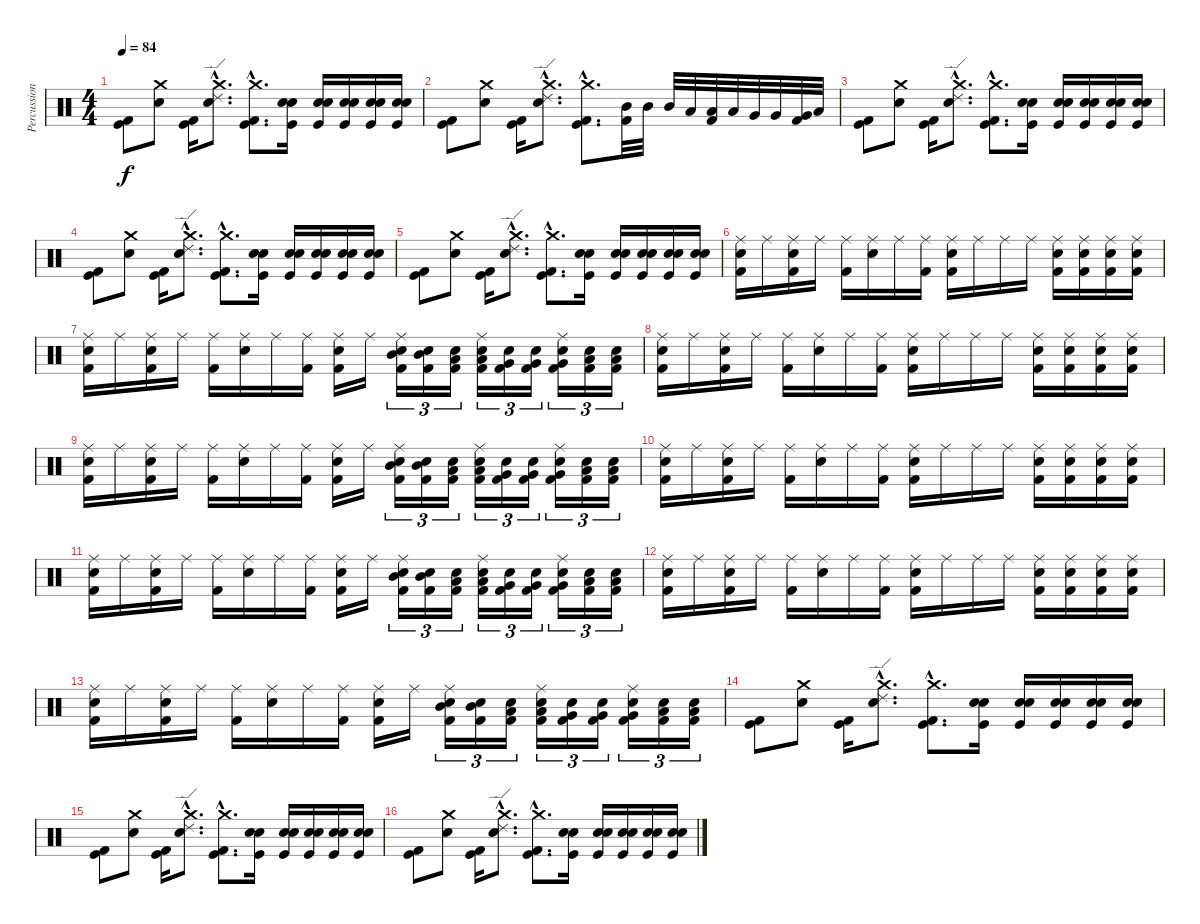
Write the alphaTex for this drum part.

\track ("Percussions" "Percussion") {instrument percussion}
\staff {score}
\articulation defaults
\ts (4 4)
\tempo 84
\clef neutral
\ks c
("Kick (hit)" "Kick (hit) 2").8{dy f} ("Crash medium (hit)" "Snare (hit) 2").8 ("Kick (hit)" "Kick (hit) 2").16 ("Crash medium (hit)"{hac} "Snare (hit) 2"{hac} "Ride (edge) 2"{hac}).8{d} ("Crash medium (hit)"{hac} "Kick (hit)"{hac} "Kick (hit) 2"{hac}).8{d} ("Kick (hit)" "Electric Snare (hit)" "Electric Snare (hit)").16 ("Kick (hit)" "Electric Snare (hit)" "Electric Snare (hit)").16 ("Kick (hit)" "Electric Snare (hit)" "Electric Snare (hit)").16 ("Kick (hit)" "Electric Snare (hit)" "Electric Snare (hit)").16 ("Kick (hit)" "Electric Snare (hit)" "Electric Snare (hit)").16 |
("Kick (hit)" "Kick (hit) 2").8 ("Crash medium (hit)" "Snare (hit) 2").8 ("Kick (hit)" "Kick (hit) 2").16 ("Crash medium (hit)"{hac} "Snare (hit) 2"{hac} "Ride (edge) 2"{hac}).8{d} ("Crash medium (hit)"{hac} "Kick (hit)"{hac} "Kick (hit) 2"{hac}).8{d} ("Mid Tom (hit)" "Kick (hit) 2").32 "Mid Tom (hit)".32 "Mid Tom (hit)".32 "Low Tom (hit)".32 ("Low Tom (hit)" "Kick (hit) 2").32 "Low Tom (hit)".32 "Very Low Tom (hit)".32 "Very Low Tom (hit)".32 ("Very Low Tom (hit)" "Kick (hit) 2").32 "Low Floor Tom (hit)".32 |
("Kick (hit)" "Kick (hit) 2").8 ("Crash medium (hit)" "Snare (hit) 2").8 ("Kick (hit)" "Kick (hit) 2").16 ("Crash medium (hit)"{hac} "Snare (hit) 2"{hac} "Ride (edge) 2"{hac}).8{d} ("Crash medium (hit)"{hac} "Kick (hit)"{hac} "Kick (hit) 2"{hac}).8{d} ("Kick (hit)" "Electric Snare (hit)" "Electric Snare (hit)").16 ("Kick (hit)" "Electric Snare (hit)" "Electric Snare (hit)").16 ("Kick (hit)" "Electric Snare (hit)" "Electric Snare (hit)").16 ("Kick (hit)" "Electric Snare (hit)" "Electric Snare (hit)").16 ("Kick (hit)" "Electric Snare (hit)" "Electric Snare (hit)").16 |
("Kick (hit)" "Kick (hit) 2").8 ("Crash medium (hit)" "Snare (hit) 2").8 ("Kick (hit)" "Kick (hit) 2").16 ("Crash medium (hit)"{hac} "Snare (hit) 2"{hac} "Ride (edge) 2"{hac}).8{d} ("Crash medium (hit)"{hac} "Kick (hit)"{hac} "Kick (hit) 2"{hac}).8{d} ("Kick (hit)" "Electric Snare (hit)" "Electric Snare (hit)").16 ("Kick (hit)" "Electric Snare (hit)" "Electric Snare (hit)").16 ("Kick (hit)" "Electric Snare (hit)" "Electric Snare (hit)").16 ("Kick (hit)" "Electric Snare (hit)" "Electric Snare (hit)").16 ("Kick (hit)" "Electric Snare (hit)" "Electric Snare (hit)").16 |
("Kick (hit)" "Kick (hit) 2").8 ("Crash medium (hit)" "Snare (hit) 2").8 ("Kick (hit)" "Kick (hit) 2").16 ("Crash medium (hit)"{hac} "Snare (hit) 2"{hac} "Ride (edge) 2"{hac}).8{d} ("Crash medium (hit)"{hac} "Kick (hit)"{hac} "Kick (hit) 2"{hac}).8{d} ("Kick (hit)" "Electric Snare (hit)" "Electric Snare (hit)").16 ("Kick (hit)" "Electric Snare (hit)" "Electric Snare (hit)").16 ("Kick (hit)" "Electric Snare (hit)" "Electric Snare (hit)").16 ("Kick (hit)" "Electric Snare (hit)" "Electric Snare (hit)").16 ("Kick (hit)" "Electric Snare (hit)" "Electric Snare (hit)").16 |
("Ride (middle)" "Snare (hit) 2" "Kick (hit) 2").16 "Ride (middle)".16 ("Ride (middle)" "Snare (hit) 2" "Kick (hit) 2").16 "Ride (middle)".16 ("Ride (middle)" "Kick (hit) 2").16 ("Ride (middle)" "Snare (hit) 2").16 "Ride (middle)".16 ("Ride (middle)" "Kick (hit) 2").16 ("Ride (middle)" "Snare (hit) 2" "Kick (hit) 2").16 "Ride (middle)".16 "Ride (middle)".16 "Ride (middle)".16 ("Ride (middle)" "Snare (hit) 2" "Kick (hit) 2").16 ("Ride (middle)" "Kick (hit) 2" "Snare (hit) 2").16 ("Ride (middle)" "Snare (hit) 2" "Kick (hit) 2").16 ("Ride (middle)" "Snare (hit) 2" "Kick (hit) 2").16 |
("Ride (middle)" "Snare (hit) 2" "Kick (hit) 2").16 "Ride (middle)".16 ("Ride (middle)" "Snare (hit) 2" "Kick (hit) 2").16 "Ride (middle)".16 ("Ride (middle)" "Kick (hit) 2").16 ("Ride (middle)" "Snare (hit) 2").16 "Ride (middle)".16 ("Ride (middle)" "Kick (hit) 2").16 ("Ride (middle)" "Snare (hit) 2" "Kick (hit) 2").16 "Ride (middle)".16 ("Ride (middle)" "Snare (hit) 2" "Mid Tom (hit)" "Kick (hit) 2").16{tu (3 2)} ("Snare (hit) 2" "Mid Tom (hit)" "Kick (hit) 2").16{tu (3 2)} ("Snare (hit) 2" "Low Tom (hit)" "Kick (hit) 2").16{tu (3 2)} ("Ride (middle)" "Snare (hit) 2" "Low Tom (hit)" "Kick (hit) 2").16{tu (3 2)} ("Snare (hit) 2" "Very Low Tom (hit)" "Kick (hit) 2").16{tu (3 2)} ("Electric Snare (hit)" "Very Low Tom (hit)" "Kick (hit) 2").16{tu (3 2)} ("Ride (middle)" "Electric Snare (hit)" "Very Low Tom (hit)" "Kick (hit) 2").16{tu (3 2)} ("Electric Snare (hit)" "Low Floor Tom (hit)" "Kick (hit) 2").16{tu (3 2)} ("Electric Snare (hit)" "Low Floor Tom (hit)" "Kick (hit) 2").16{tu (3 2)} |
("Ride (middle)" "Snare (hit) 2" "Kick (hit) 2").16 "Ride (middle)".16 ("Ride (middle)" "Snare (hit) 2" "Kick (hit) 2").16 "Ride (middle)".16 ("Ride (middle)" "Kick (hit) 2").16 ("Ride (middle)" "Snare (hit) 2").16 "Ride (middle)".16 ("Ride (middle)" "Kick (hit) 2").16 ("Ride (middle)" "Snare (hit) 2" "Kick (hit) 2").16 "Ride (middle)".16 "Ride (middle)".16 "Ride (middle)".16 ("Ride (middle)" "Snare (hit) 2" "Kick (hit) 2").16 ("Ride (middle)" "Kick (hit) 2" "Snare (hit) 2").16 ("Ride (middle)" "Snare (hit) 2" "Kick (hit) 2").16 ("Ride (middle)" "Snare (hit) 2" "Kick (hit) 2").16 |
("Ride (middle)" "Snare (hit) 2" "Kick (hit) 2").16 "Ride (middle)".16 ("Ride (middle)" "Snare (hit) 2" "Kick (hit) 2").16 "Ride (middle)".16 ("Ride (middle)" "Kick (hit) 2").16 ("Ride (middle)" "Snare (hit) 2").16 "Ride (middle)".16 ("Ride (middle)" "Kick (hit) 2").16 ("Ride (middle)" "Snare (hit) 2" "Kick (hit) 2").16 "Ride (middle)".16 ("Ride (middle)" "Snare (hit) 2" "Mid Tom (hit)" "Kick (hit) 2").16{tu (3 2)} ("Snare (hit) 2" "Mid Tom (hit)" "Kick (hit) 2").16{tu (3 2)} ("Snare (hit) 2" "Low Tom (hit)" "Kick (hit) 2").16{tu (3 2)} ("Ride (middle)" "Snare (hit) 2" "Low Tom (hit)" "Kick (hit) 2").16{tu (3 2)} ("Snare (hit) 2" "Very Low Tom (hit)" "Kick (hit) 2").16{tu (3 2)} ("Electric Snare (hit)" "Very Low Tom (hit)" "Kick (hit) 2").16{tu (3 2)} ("Ride (middle)" "Electric Snare (hit)" "Very Low Tom (hit)" "Kick (hit) 2").16{tu (3 2)} ("Electric Snare (hit)" "Low Floor Tom (hit)" "Kick (hit) 2").16{tu (3 2)} ("Electric Snare (hit)" "Low Floor Tom (hit)" "Kick (hit) 2").16{tu (3 2)} |
("Ride (middle)" "Snare (hit) 2" "Kick (hit) 2").16 "Ride (middle)".16 ("Ride (middle)" "Snare (hit) 2" "Kick (hit) 2").16 "Ride (middle)".16 ("Ride (middle)" "Kick (hit) 2").16 ("Ride (middle)" "Snare (hit) 2").16 "Ride (middle)".16 ("Ride (middle)" "Kick (hit) 2").16 ("Ride (middle)" "Snare (hit) 2" "Kick (hit) 2").16 "Ride (middle)".16 "Ride (middle)".16 "Ride (middle)".16 ("Ride (middle)" "Snare (hit) 2" "Kick (hit) 2").16 ("Ride (middle)" "Kick (hit) 2" "Snare (hit) 2").16 ("Ride (middle)" "Snare (hit) 2" "Kick (hit) 2").16 ("Ride (middle)" "Snare (hit) 2" "Kick (hit) 2").16 |
("Ride (middle)" "Snare (hit) 2" "Kick (hit) 2").16 "Ride (middle)".16 ("Ride (middle)" "Snare (hit) 2" "Kick (hit) 2").16 "Ride (middle)".16 ("Ride (middle)" "Kick (hit) 2").16 ("Ride (middle)" "Snare (hit) 2").16 "Ride (middle)".16 ("Ride (middle)" "Kick (hit) 2").16 ("Ride (middle)" "Snare (hit) 2" "Kick (hit) 2").16 "Ride (middle)".16 ("Ride (middle)" "Snare (hit) 2" "Mid Tom (hit)" "Kick (hit) 2").16{tu (3 2)} ("Snare (hit) 2" "Mid Tom (hit)" "Kick (hit) 2").16{tu (3 2)} ("Snare (hit) 2" "Low Tom (hit)" "Kick (hit) 2").16{tu (3 2)} ("Ride (middle)" "Snare (hit) 2" "Low Tom (hit)" "Kick (hit) 2").16{tu (3 2)} ("Snare (hit) 2" "Very Low Tom (hit)" "Kick (hit) 2").16{tu (3 2)} ("Electric Snare (hit)" "Very Low Tom (hit)" "Kick (hit) 2").16{tu (3 2)} ("Ride (middle)" "Electric Snare (hit)" "Very Low Tom (hit)" "Kick (hit) 2").16{tu (3 2)} ("Electric Snare (hit)" "Low Floor Tom (hit)" "Kick (hit) 2").16{tu (3 2)} ("Electric Snare (hit)" "Low Floor Tom (hit)" "Kick (hit) 2").16{tu (3 2)} |
("Ride (middle)" "Snare (hit) 2" "Kick (hit) 2").16 "Ride (middle)".16 ("Ride (middle)" "Snare (hit) 2" "Kick (hit) 2").16 "Ride (middle)".16 ("Ride (middle)" "Kick (hit) 2").16 ("Ride (middle)" "Snare (hit) 2").16 "Ride (middle)".16 ("Ride (middle)" "Kick (hit) 2").16 ("Ride (middle)" "Snare (hit) 2" "Kick (hit) 2").16 "Ride (middle)".16 "Ride (middle)".16 "Ride (middle)".16 ("Ride (middle)" "Snare (hit) 2" "Kick (hit) 2").16 ("Ride (middle)" "Kick (hit) 2" "Snare (hit) 2").16 ("Ride (middle)" "Snare (hit) 2" "Kick (hit) 2").16 ("Ride (middle)" "Snare (hit) 2" "Kick (hit) 2").16 |
("Ride (middle)" "Snare (hit) 2" "Kick (hit) 2").16 "Ride (middle)".16 ("Ride (middle)" "Snare (hit) 2" "Kick (hit) 2").16 "Ride (middle)".16 ("Ride (middle)" "Kick (hit) 2").16 ("Ride (middle)" "Snare (hit) 2").16 "Ride (middle)".16 ("Ride (middle)" "Kick (hit) 2").16 ("Ride (middle)" "Snare (hit) 2" "Kick (hit) 2").16 "Ride (middle)".16 ("Ride (middle)" "Snare (hit) 2" "Mid Tom (hit)" "Kick (hit) 2").16{tu (3 2)} ("Snare (hit) 2" "Mid Tom (hit)" "Kick (hit) 2").16{tu (3 2)} ("Snare (hit) 2" "Low Tom (hit)" "Kick (hit) 2").16{tu (3 2)} ("Ride (middle)" "Snare (hit) 2" "Low Tom (hit)" "Kick (hit) 2").16{tu (3 2)} ("Snare (hit) 2" "Very Low Tom (hit)" "Kick (hit) 2").16{tu (3 2)} ("Electric Snare (hit)" "Very Low Tom (hit)" "Kick (hit) 2").16{tu (3 2)} ("Ride (middle)" "Electric Snare (hit)" "Very Low Tom (hit)" "Kick (hit) 2").16{tu (3 2)} ("Electric Snare (hit)" "Low Floor Tom (hit)" "Kick (hit) 2").16{tu (3 2)} ("Electric Snare (hit)" "Low Floor Tom (hit)" "Kick (hit) 2").16{tu (3 2)} |
("Kick (hit)" "Kick (hit) 2").8 ("Crash medium (hit)" "Snare (hit) 2").8 ("Kick (hit)" "Kick (hit) 2").16 ("Crash medium (hit)"{hac} "Snare (hit) 2"{hac} "Ride (edge) 2"{hac}).8{d} ("Crash medium (hit)"{hac} "Kick (hit)"{hac} "Kick (hit) 2"{hac}).8{d} ("Kick (hit)" "Electric Snare (hit)" "Electric Snare (hit)").16 ("Kick (hit)" "Electric Snare (hit)" "Electric Snare (hit)").16 ("Kick (hit)" "Electric Snare (hit)" "Electric Snare (hit)").16 ("Kick (hit)" "Electric Snare (hit)" "Electric Snare (hit)").16 ("Kick (hit)" "Electric Snare (hit)" "Electric Snare (hit)").16 |
("Kick (hit)" "Kick (hit) 2").8 ("Crash medium (hit)" "Snare (hit) 2").8 ("Kick (hit)" "Kick (hit) 2").16 ("Crash medium (hit)"{hac} "Snare (hit) 2"{hac} "Ride (edge) 2"{hac}).8{d} ("Crash medium (hit)"{hac} "Kick (hit)"{hac} "Kick (hit) 2"{hac}).8{d} ("Kick (hit)" "Electric Snare (hit)" "Electric Snare (hit)").16 ("Kick (hit)" "Electric Snare (hit)" "Electric Snare (hit)").16 ("Kick (hit)" "Electric Snare (hit)" "Electric Snare (hit)").16 ("Kick (hit)" "Electric Snare (hit)" "Electric Snare (hit)").16 ("Kick (hit)" "Electric Snare (hit)" "Electric Snare (hit)").16 |
("Kick (hit)" "Kick (hit) 2").8 ("Crash medium (hit)" "Snare (hit) 2").8 ("Kick (hit)" "Kick (hit) 2").16 ("Crash medium (hit)"{hac} "Snare (hit) 2"{hac} "Ride (edge) 2"{hac}).8{d} ("Crash medium (hit)"{hac} "Kick (hit)"{hac} "Kick (hit) 2"{hac}).8{d} ("Kick (hit)" "Electric Snare (hit)" "Electric Snare (hit)").16 ("Kick (hit)" "Electric Snare (hit)" "Electric Snare (hit)").16 ("Kick (hit)" "Electric Snare (hit)" "Electric Snare (hit)").16 ("Kick (hit)" "Electric Snare (hit)" "Electric Snare (hit)").16 ("Kick (hit)" "Electric Snare (hit)" "Electric Snare (hit)").16
